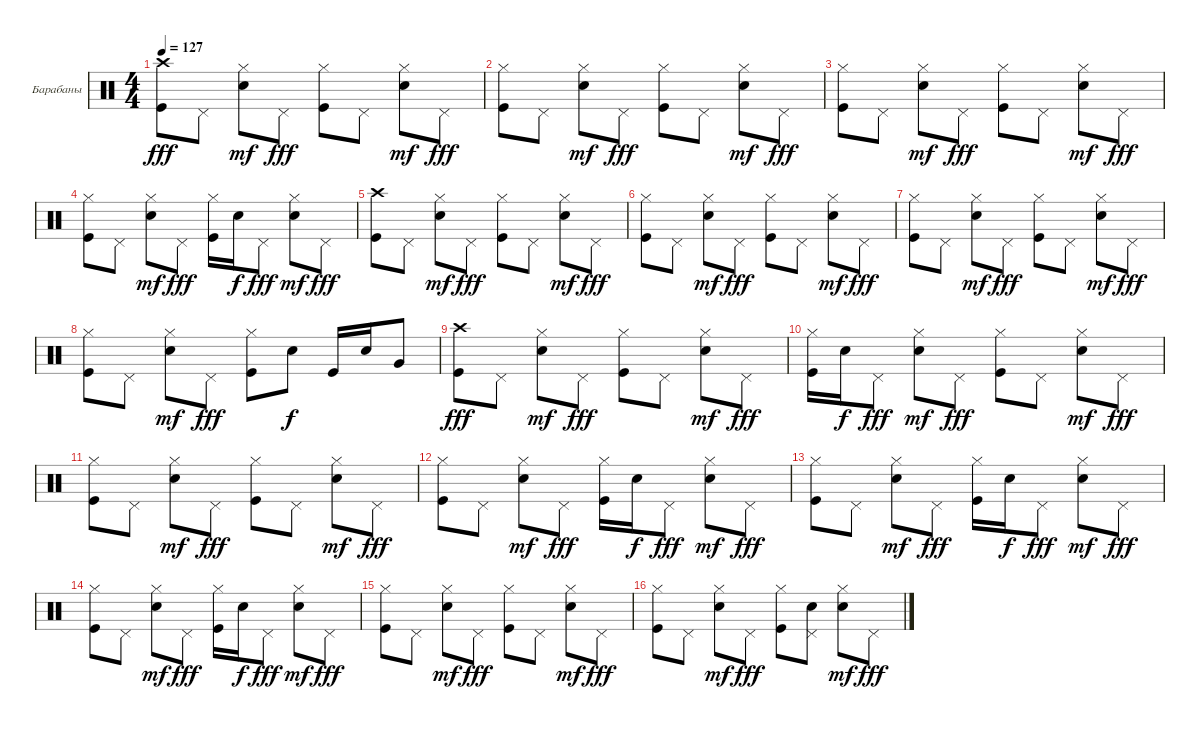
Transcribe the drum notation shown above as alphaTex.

\bracketExtendMode groupsimilarinstruments
\firstSystemTrackNameOrientation horizontal
\otherSystemsTrackNameOrientation horizontal
\track ("Ударные" "Барабаны") {instrument percussion}
\staff {score}
\articulation defaults
\ts (4 4)
\tempo 127
\clef neutral
\ks c
("Kick (hit)" "Crash high (hit)").8{dy fff} "Pedal Hi-Hat (hit)".8 ("Hi-Hat (closed)" "Snare (hit) 2").8{dy mf} "Pedal Hi-Hat (hit)".8{dy fff} ("Kick (hit)" "Hi-Hat (closed)").8 "Pedal Hi-Hat (hit)".8 ("Hi-Hat (closed)" "Snare (hit) 2").8{dy mf} "Pedal Hi-Hat (hit)".8{dy fff} |
("Kick (hit)" "Hi-Hat (closed)").8 "Pedal Hi-Hat (hit)".8 ("Hi-Hat (closed)" "Snare (hit) 2").8{dy mf} "Pedal Hi-Hat (hit)".8{dy fff} ("Kick (hit)" "Hi-Hat (closed)").8 "Pedal Hi-Hat (hit)".8 ("Hi-Hat (closed)" "Snare (hit) 2").8{dy mf} "Pedal Hi-Hat (hit)".8{dy fff} |
("Kick (hit)" "Hi-Hat (closed)").8 "Pedal Hi-Hat (hit)".8 ("Hi-Hat (closed)" "Snare (hit) 2").8{dy mf} "Pedal Hi-Hat (hit)".8{dy fff} ("Kick (hit)" "Hi-Hat (closed)").8 "Pedal Hi-Hat (hit)".8 ("Hi-Hat (closed)" "Snare (hit) 2").8{dy mf} "Pedal Hi-Hat (hit)".8{dy fff} |
("Kick (hit)" "Hi-Hat (closed)").8 "Pedal Hi-Hat (hit)".8 ("Hi-Hat (closed)" "Snare (hit) 2").8{dy mf} "Pedal Hi-Hat (hit)".8{dy fff} ("Kick (hit)" "Hi-Hat (closed)").16 "Snare (hit) 2".16{dy f} "Pedal Hi-Hat (hit)".8{dy fff} ("Hi-Hat (closed)" "Snare (hit) 2").8{dy mf} "Pedal Hi-Hat (hit)".8{dy fff} |
("Kick (hit)" "Crash high (hit)").8 "Pedal Hi-Hat (hit)".8 ("Hi-Hat (closed)" "Snare (hit) 2").8{dy mf} "Pedal Hi-Hat (hit)".8{dy fff} ("Kick (hit)" "Hi-Hat (closed)").8 "Pedal Hi-Hat (hit)".8 ("Hi-Hat (closed)" "Snare (hit) 2").8{dy mf} "Pedal Hi-Hat (hit)".8{dy fff} |
("Kick (hit)" "Hi-Hat (closed)").8 "Pedal Hi-Hat (hit)".8 ("Hi-Hat (closed)" "Snare (hit) 2").8{dy mf} "Pedal Hi-Hat (hit)".8{dy fff} ("Kick (hit)" "Hi-Hat (closed)").8 "Pedal Hi-Hat (hit)".8 ("Hi-Hat (closed)" "Snare (hit) 2").8{dy mf} "Pedal Hi-Hat (hit)".8{dy fff} |
("Kick (hit)" "Hi-Hat (closed)").8 "Pedal Hi-Hat (hit)".8 ("Hi-Hat (closed)" "Snare (hit) 2").8{dy mf} "Pedal Hi-Hat (hit)".8{dy fff} ("Kick (hit)" "Hi-Hat (closed)").8 "Pedal Hi-Hat (hit)".8 ("Hi-Hat (closed)" "Snare (hit) 2").8{dy mf} "Pedal Hi-Hat (hit)".8{dy fff} |
("Kick (hit)" "Hi-Hat (closed)").8 "Pedal Hi-Hat (hit)".8 ("Hi-Hat (closed)" "Snare (hit) 2").8{dy mf} "Pedal Hi-Hat (hit)".8{dy fff} ("Kick (hit)" "Hi-Hat (closed)").8 "Snare (hit) 2".8{dy f} "Kick (hit)".16 "Snare (hit) 2".16 "Very Low Tom (hit)".8 |
("Kick (hit)" "Crash high (hit)").8{dy fff} "Pedal Hi-Hat (hit)".8 ("Hi-Hat (closed)" "Snare (hit) 2").8{dy mf} "Pedal Hi-Hat (hit)".8{dy fff} ("Kick (hit)" "Hi-Hat (closed)").8 "Pedal Hi-Hat (hit)".8 ("Hi-Hat (closed)" "Snare (hit) 2").8{dy mf} "Pedal Hi-Hat (hit)".8{dy fff} |
("Kick (hit)" "Hi-Hat (closed)").16 "Snare (hit) 2".16{dy f} "Pedal Hi-Hat (hit)".8{dy fff} ("Hi-Hat (closed)" "Snare (hit) 2").8{dy mf} "Pedal Hi-Hat (hit)".8{dy fff} ("Kick (hit)" "Hi-Hat (closed)").8 "Pedal Hi-Hat (hit)".8 ("Hi-Hat (closed)" "Snare (hit) 2").8{dy mf} "Pedal Hi-Hat (hit)".8{dy fff} |
("Kick (hit)" "Hi-Hat (closed)").8 "Pedal Hi-Hat (hit)".8 ("Hi-Hat (closed)" "Snare (hit) 2").8{dy mf} "Pedal Hi-Hat (hit)".8{dy fff} ("Kick (hit)" "Hi-Hat (closed)").8 "Pedal Hi-Hat (hit)".8 ("Hi-Hat (closed)" "Snare (hit) 2").8{dy mf} "Pedal Hi-Hat (hit)".8{dy fff} |
("Kick (hit)" "Hi-Hat (closed)").8 "Pedal Hi-Hat (hit)".8 ("Hi-Hat (closed)" "Snare (hit) 2").8{dy mf} "Pedal Hi-Hat (hit)".8{dy fff} ("Kick (hit)" "Hi-Hat (closed)").16 "Snare (hit) 2".16{dy f} "Pedal Hi-Hat (hit)".8{dy fff} ("Hi-Hat (closed)" "Snare (hit) 2").8{dy mf} "Pedal Hi-Hat (hit)".8{dy fff} |
("Kick (hit)" "Hi-Hat (closed)").8 "Pedal Hi-Hat (hit)".8 ("Hi-Hat (closed)" "Snare (hit) 2").8{dy mf} "Pedal Hi-Hat (hit)".8{dy fff} ("Kick (hit)" "Hi-Hat (closed)").16 "Snare (hit) 2".16{dy f} "Pedal Hi-Hat (hit)".8{dy fff} ("Hi-Hat (closed)" "Snare (hit) 2").8{dy mf} "Pedal Hi-Hat (hit)".8{dy fff} |
("Kick (hit)" "Hi-Hat (closed)").8 "Pedal Hi-Hat (hit)".8 ("Hi-Hat (closed)" "Snare (hit) 2").8{dy mf} "Pedal Hi-Hat (hit)".8{dy fff} ("Kick (hit)" "Hi-Hat (closed)").16 "Snare (hit) 2".16{dy f} "Pedal Hi-Hat (hit)".8{dy fff} ("Hi-Hat (closed)" "Snare (hit) 2").8{dy mf} "Pedal Hi-Hat (hit)".8{dy fff} |
("Kick (hit)" "Hi-Hat (closed)").8 "Pedal Hi-Hat (hit)".8 ("Hi-Hat (closed)" "Snare (hit) 2").8{dy mf} "Pedal Hi-Hat (hit)".8{dy fff} ("Kick (hit)" "Hi-Hat (closed)").8 "Pedal Hi-Hat (hit)".8 ("Hi-Hat (closed)" "Snare (hit) 2").8{dy mf} "Pedal Hi-Hat (hit)".8{dy fff} |
("Kick (hit)" "Hi-Hat (closed)").8 "Pedal Hi-Hat (hit)".8 ("Hi-Hat (closed)" "Snare (hit) 2").8{dy mf} "Pedal Hi-Hat (hit)".8{dy fff} ("Kick (hit)" "Hi-Hat (closed)").8 ("Pedal Hi-Hat (hit)" "Snare (hit) 2").8 ("Hi-Hat (closed)" "Snare (hit) 2").8{dy mf} "Pedal Hi-Hat (hit)".8{dy fff}
